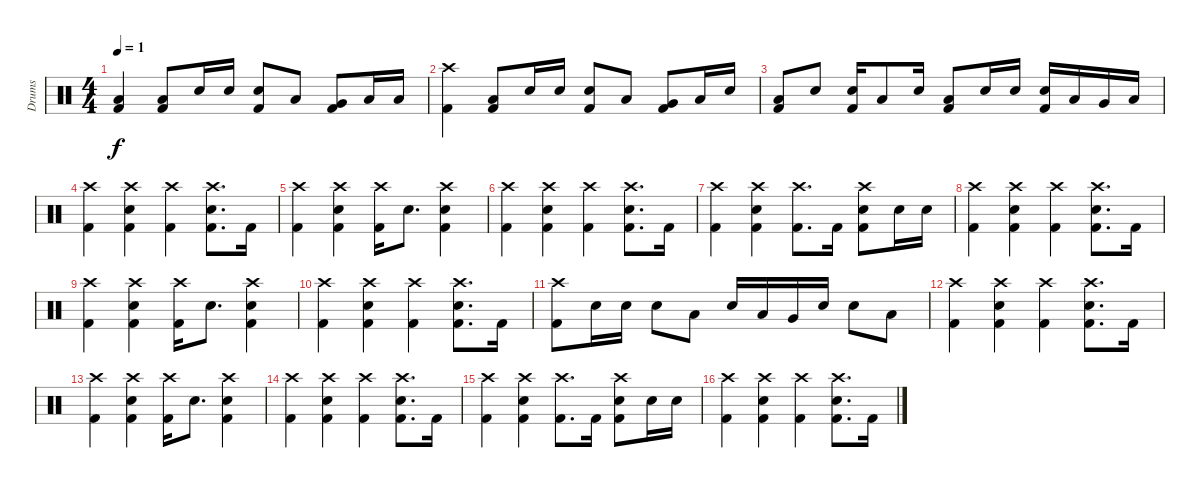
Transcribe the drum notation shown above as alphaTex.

\track ("Drums" "Drums") {instrument percussion}
\staff {score}
\articulation defaults
\ts (4 4)
\tempo 1
\clef neutral
\ks c
("Kick (hit) 2" "Low Floor Tom (hit)").4{dy f} ("Kick (hit) 2" "Low Floor Tom (hit)").8 "Snare (hit) 2".16 "Snare (hit) 2".16 ("Snare (hit) 2" "Kick (hit) 2").8 "Low Tom (hit)".8 ("Kick (hit) 2" "Very Low Tom (hit)").8 "Low Floor Tom (hit)".16 "Low Floor Tom (hit)".16 |
("Kick (hit) 2" "Crash high (hit)").4 ("Kick (hit) 2" "Low Floor Tom (hit)").8 "Snare (hit) 2".16 "Snare (hit) 2".16 ("Snare (hit) 2" "Kick (hit) 2").8 "Low Tom (hit)".8 ("Kick (hit) 2" "Very Low Tom (hit)").8 "Low Floor Tom (hit)".16 "Snare (hit) 2".16 |
("Kick (hit) 2" "Low Floor Tom (hit)").8 "Snare (hit) 2".8 ("Snare (hit) 2" "Kick (hit) 2").16 "Low Floor Tom (hit)".8 "Snare (hit) 2".16 ("Low Floor Tom (hit)" "Kick (hit) 2").8 "Snare (hit) 2".16 "Snare (hit) 2".16 ("Snare (hit) 2" "Kick (hit) 2").16 "Low Tom (hit)".16 "Very Low Tom (hit)".16 "Low Floor Tom (hit)".16 |
("Kick (hit) 2" "Crash high (hit)").4 ("Kick (hit) 2" "Crash high (hit)" "Snare (hit) 2").4 ("Kick (hit) 2" "Crash high (hit)").4 ("Kick (hit) 2" "Crash high (hit)" "Snare (hit) 2").8{d} "Kick (hit) 2".16 |
("Kick (hit) 2" "Crash high (hit)").4 ("Kick (hit) 2" "Crash high (hit)" "Snare (hit) 2").4 ("Kick (hit) 2" "Crash high (hit)").16 "Snare (hit) 2".8{d} ("Kick (hit) 2" "Crash high (hit)" "Snare (hit) 2").4 |
("Kick (hit) 2" "Crash high (hit)").4 ("Kick (hit) 2" "Crash high (hit)" "Snare (hit) 2").4 ("Kick (hit) 2" "Crash high (hit)").4 ("Kick (hit) 2" "Crash high (hit)" "Snare (hit) 2").8{d} "Kick (hit) 2".16 |
("Kick (hit) 2" "Crash high (hit)").4 ("Kick (hit) 2" "Crash high (hit)" "Snare (hit) 2").4 ("Kick (hit) 2" "Crash high (hit)").8{d} "Kick (hit) 2".16 ("Kick (hit) 2" "Crash high (hit)" "Snare (hit) 2").8 "Snare (hit) 2".16 "Snare (hit) 2".16 |
("Kick (hit) 2" "Crash high (hit)").4 ("Kick (hit) 2" "Crash high (hit)" "Snare (hit) 2").4 ("Kick (hit) 2" "Crash high (hit)").4 ("Kick (hit) 2" "Crash high (hit)" "Snare (hit) 2").8{d} "Kick (hit) 2".16 |
("Kick (hit) 2" "Crash high (hit)").4 ("Kick (hit) 2" "Crash high (hit)" "Snare (hit) 2").4 ("Kick (hit) 2" "Crash high (hit)").16 "Snare (hit) 2".8{d} ("Kick (hit) 2" "Crash high (hit)" "Snare (hit) 2").4 |
("Kick (hit) 2" "Crash high (hit)").4 ("Kick (hit) 2" "Crash high (hit)" "Snare (hit) 2").4 ("Kick (hit) 2" "Crash high (hit)").4 ("Kick (hit) 2" "Crash high (hit)" "Snare (hit) 2").8{d} "Kick (hit) 2".16 |
("Kick (hit) 2" "Crash high (hit)").8 "Snare (hit) 2".16 "Snare (hit) 2".16 "Snare (hit) 2".8 "Low Tom (hit)".8 "Snare (hit) 2".16 "Low Tom (hit)".16 "Very Low Tom (hit)".16 "Snare (hit) 2".16 "Snare (hit) 2".8 "Low Floor Tom (hit)".8 |
("Kick (hit) 2" "Crash high (hit)").4 ("Kick (hit) 2" "Crash high (hit)" "Snare (hit) 2").4 ("Kick (hit) 2" "Crash high (hit)").4 ("Kick (hit) 2" "Crash high (hit)" "Snare (hit) 2").8{d} "Kick (hit) 2".16 |
("Kick (hit) 2" "Crash high (hit)").4 ("Kick (hit) 2" "Crash high (hit)" "Snare (hit) 2").4 ("Kick (hit) 2" "Crash high (hit)").16 "Snare (hit) 2".8{d} ("Kick (hit) 2" "Crash high (hit)" "Snare (hit) 2").4 |
("Kick (hit) 2" "Crash high (hit)").4 ("Kick (hit) 2" "Crash high (hit)" "Snare (hit) 2").4 ("Kick (hit) 2" "Crash high (hit)").4 ("Kick (hit) 2" "Crash high (hit)" "Snare (hit) 2").8{d} "Kick (hit) 2".16 |
("Kick (hit) 2" "Crash high (hit)").4 ("Kick (hit) 2" "Crash high (hit)" "Snare (hit) 2").4 ("Kick (hit) 2" "Crash high (hit)").8{d} "Kick (hit) 2".16 ("Kick (hit) 2" "Crash high (hit)" "Snare (hit) 2").8 "Snare (hit) 2".16 "Snare (hit) 2".16 |
("Kick (hit) 2" "Crash high (hit)").4 ("Kick (hit) 2" "Crash high (hit)" "Snare (hit) 2").4 ("Kick (hit) 2" "Crash high (hit)").4 ("Kick (hit) 2" "Crash high (hit)" "Snare (hit) 2").8{d} "Kick (hit) 2".16
